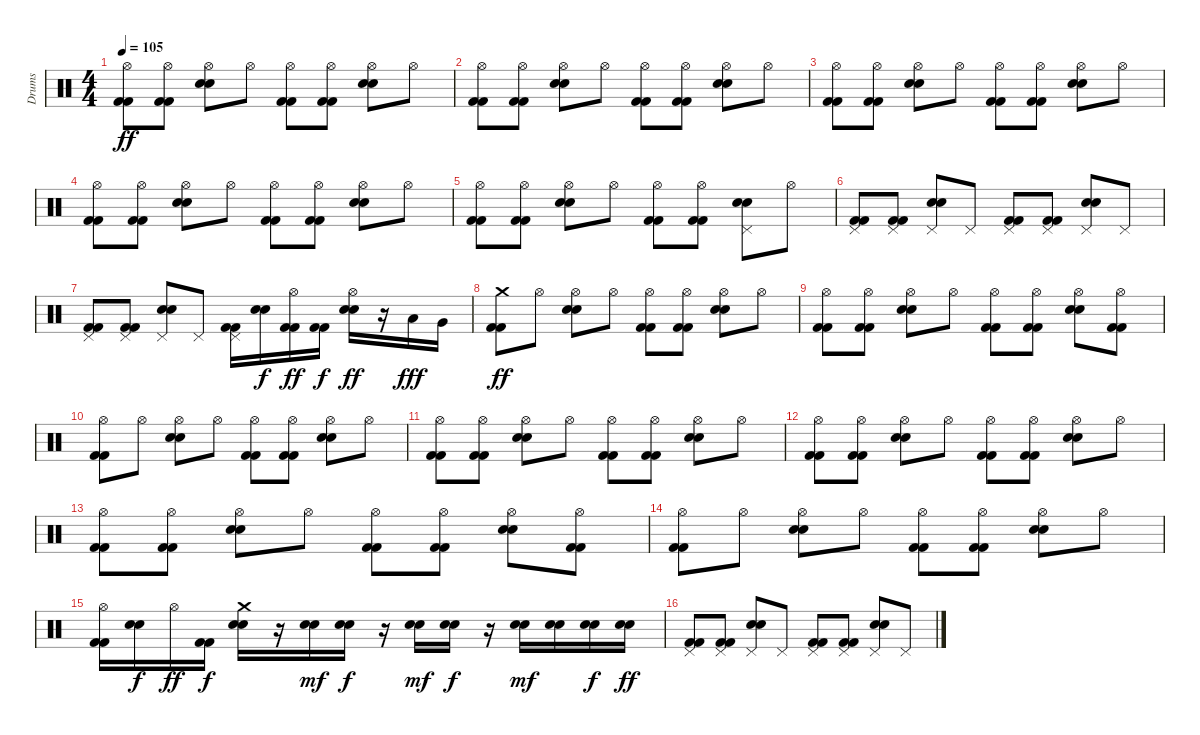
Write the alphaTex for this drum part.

\track ("Drums" "Drums") {instrument percussion}
\staff {score}
\articulation defaults
\ts (4 4)
\tempo 105
\clef neutral
\ks c
("Hi-Hat (open)" "Kick (hit) 2" "Kick (hit) 2").8{dy ff} ("Hi-Hat (open)" "Kick (hit) 2" "Kick (hit) 2").8 ("Hi-Hat (open)" "Electric Snare (hit)" "Snare (hit) 2").8 "Hi-Hat (open)".8 ("Hi-Hat (open)" "Kick (hit) 2" "Kick (hit) 2").8 ("Hi-Hat (open)" "Kick (hit) 2" "Kick (hit) 2").8 ("Hi-Hat (open)" "Electric Snare (hit)" "Snare (hit) 2").8 "Hi-Hat (open)".8 |
("Hi-Hat (open)" "Kick (hit) 2" "Kick (hit) 2").8 ("Hi-Hat (open)" "Kick (hit) 2" "Kick (hit) 2").8 ("Hi-Hat (open)" "Electric Snare (hit)" "Snare (hit) 2").8 "Hi-Hat (open)".8 ("Hi-Hat (open)" "Kick (hit) 2" "Kick (hit) 2").8 ("Hi-Hat (open)" "Kick (hit) 2" "Kick (hit) 2").8 ("Hi-Hat (open)" "Electric Snare (hit)" "Snare (hit) 2").8 "Hi-Hat (open)".8 |
("Hi-Hat (open)" "Kick (hit) 2" "Kick (hit) 2").8 ("Hi-Hat (open)" "Kick (hit) 2" "Kick (hit) 2").8 ("Hi-Hat (open)" "Electric Snare (hit)" "Snare (hit) 2").8 "Hi-Hat (open)".8 ("Hi-Hat (open)" "Kick (hit) 2" "Kick (hit) 2").8 ("Hi-Hat (open)" "Kick (hit) 2" "Kick (hit) 2").8 ("Hi-Hat (open)" "Electric Snare (hit)" "Snare (hit) 2").8 "Hi-Hat (open)".8 |
("Hi-Hat (open)" "Kick (hit) 2" "Kick (hit) 2").8 ("Hi-Hat (open)" "Kick (hit) 2" "Kick (hit) 2").8 ("Hi-Hat (open)" "Electric Snare (hit)" "Snare (hit) 2").8 "Hi-Hat (open)".8 ("Hi-Hat (open)" "Kick (hit) 2" "Kick (hit) 2").8 ("Hi-Hat (open)" "Kick (hit) 2" "Kick (hit) 2").8 ("Hi-Hat (open)" "Electric Snare (hit)" "Snare (hit) 2").8 "Hi-Hat (open)".8 |
("Hi-Hat (open)" "Kick (hit) 2" "Kick (hit) 2").8 ("Hi-Hat (open)" "Kick (hit) 2" "Kick (hit) 2").8 ("Hi-Hat (open)" "Electric Snare (hit)" "Snare (hit) 2").8 "Hi-Hat (open)".8 ("Hi-Hat (open)" "Kick (hit) 2" "Kick (hit) 2").8 ("Hi-Hat (open)" "Kick (hit) 2" "Kick (hit) 2").8 ("Pedal Hi-Hat (hit)" "Electric Snare (hit)" "Snare (hit) 2").8 "Hi-Hat (open)".8 |
("Pedal Hi-Hat (hit)" "Kick (hit) 2" "Kick (hit) 2").8 ("Pedal Hi-Hat (hit)" "Kick (hit) 2" "Kick (hit) 2").8 ("Pedal Hi-Hat (hit)" "Electric Snare (hit)" "Snare (hit) 2").8 "Pedal Hi-Hat (hit)".8 ("Pedal Hi-Hat (hit)" "Kick (hit) 2" "Kick (hit) 2").8 ("Pedal Hi-Hat (hit)" "Kick (hit) 2" "Kick (hit) 2").8 ("Pedal Hi-Hat (hit)" "Electric Snare (hit)" "Snare (hit) 2").8 "Pedal Hi-Hat (hit)".8 |
("Pedal Hi-Hat (hit)" "Kick (hit) 2" "Kick (hit) 2").8 ("Pedal Hi-Hat (hit)" "Kick (hit) 2" "Kick (hit) 2").8 ("Pedal Hi-Hat (hit)" "Electric Snare (hit)" "Snare (hit) 2").8 "Pedal Hi-Hat (hit)".8 ("Pedal Hi-Hat (hit)" "Kick (hit) 2" "Kick (hit) 2").16 ("Electric Snare (hit)" "Snare (hit) 2").16{dy f} ("Hi-Hat (open)" "Kick (hit) 2" "Kick (hit) 2").16{dy ff} ("Kick (hit) 2" "Kick (hit) 2").16{dy f} ("Hi-Hat (open)" "Electric Snare (hit)" "Snare (hit) 2").16{dy ff} r.16 "Low Tom (hit)".16{dy fff} "Very Low Tom (hit)".16 |
("Crash medium (hit)" "Kick (hit) 2" "Kick (hit) 2").8{dy ff} "Hi-Hat (open)".8 ("Hi-Hat (open)" "Electric Snare (hit)" "Snare (hit) 2").8 "Hi-Hat (open)".8 ("Hi-Hat (open)" "Kick (hit) 2" "Kick (hit) 2").8 ("Hi-Hat (open)" "Kick (hit) 2" "Kick (hit) 2").8 ("Hi-Hat (open)" "Electric Snare (hit)" "Snare (hit) 2").8 "Hi-Hat (open)".8 |
("Hi-Hat (open)" "Kick (hit) 2" "Kick (hit) 2").8 ("Hi-Hat (open)" "Kick (hit) 2" "Kick (hit) 2").8 ("Hi-Hat (open)" "Electric Snare (hit)" "Snare (hit) 2").8 "Hi-Hat (open)".8 ("Hi-Hat (open)" "Kick (hit) 2" "Kick (hit) 2").8 ("Hi-Hat (open)" "Kick (hit) 2" "Kick (hit) 2").8 ("Hi-Hat (open)" "Electric Snare (hit)" "Snare (hit) 2").8 ("Hi-Hat (open)" "Kick (hit) 2" "Kick (hit) 2").8 |
("Hi-Hat (open)" "Kick (hit) 2" "Kick (hit) 2").8 "Hi-Hat (open)".8 ("Hi-Hat (open)" "Electric Snare (hit)" "Snare (hit) 2").8 "Hi-Hat (open)".8 ("Hi-Hat (open)" "Kick (hit) 2" "Kick (hit) 2").8 ("Hi-Hat (open)" "Kick (hit) 2" "Kick (hit) 2").8 ("Hi-Hat (open)" "Electric Snare (hit)" "Snare (hit) 2").8 "Hi-Hat (open)".8 |
("Hi-Hat (open)" "Kick (hit) 2" "Kick (hit) 2").8 ("Hi-Hat (open)" "Kick (hit) 2" "Kick (hit) 2").8 ("Hi-Hat (open)" "Electric Snare (hit)" "Snare (hit) 2").8 "Hi-Hat (open)".8 ("Hi-Hat (open)" "Kick (hit) 2" "Kick (hit) 2").8 ("Hi-Hat (open)" "Kick (hit) 2" "Kick (hit) 2").8 ("Hi-Hat (open)" "Electric Snare (hit)" "Snare (hit) 2").8 "Hi-Hat (open)".8 |
("Hi-Hat (open)" "Kick (hit) 2" "Kick (hit) 2").8 ("Hi-Hat (open)" "Kick (hit) 2" "Kick (hit) 2").8 ("Hi-Hat (open)" "Electric Snare (hit)" "Snare (hit) 2").8 "Hi-Hat (open)".8 ("Hi-Hat (open)" "Kick (hit) 2" "Kick (hit) 2").8 ("Hi-Hat (open)" "Kick (hit) 2" "Kick (hit) 2").8 ("Hi-Hat (open)" "Electric Snare (hit)" "Snare (hit) 2").8 "Hi-Hat (open)".8 |
("Hi-Hat (open)" "Kick (hit) 2" "Kick (hit) 2").8 ("Hi-Hat (open)" "Kick (hit) 2" "Kick (hit) 2").8 ("Hi-Hat (open)" "Electric Snare (hit)" "Snare (hit) 2").8 "Hi-Hat (open)".8 ("Hi-Hat (open)" "Kick (hit) 2" "Kick (hit) 2").8 ("Hi-Hat (open)" "Kick (hit) 2" "Kick (hit) 2").8 ("Hi-Hat (open)" "Electric Snare (hit)" "Snare (hit) 2").8 ("Hi-Hat (open)" "Kick (hit) 2" "Kick (hit) 2").8 |
("Hi-Hat (open)" "Kick (hit) 2" "Kick (hit) 2").8 "Hi-Hat (open)".8 ("Hi-Hat (open)" "Electric Snare (hit)" "Snare (hit) 2").8 "Hi-Hat (open)".8 ("Hi-Hat (open)" "Kick (hit) 2" "Kick (hit) 2").8 ("Hi-Hat (open)" "Kick (hit) 2" "Kick (hit) 2").8 ("Hi-Hat (open)" "Electric Snare (hit)" "Snare (hit) 2").8 "Hi-Hat (open)".8 |
("Hi-Hat (open)" "Kick (hit) 2" "Kick (hit) 2").16 ("Electric Snare (hit)" "Snare (hit) 2").16{dy f} "Hi-Hat (open)".16{dy ff} ("Kick (hit) 2" "Kick (hit) 2").16{dy f} ("Crash medium (hit)" "Electric Snare (hit)" "Snare (hit) 2").16 r.16 ("Electric Snare (hit)" "Snare (hit) 2").16{dy mf} ("Electric Snare (hit)" "Snare (hit) 2").16{dy f} r.16 ("Electric Snare (hit)" "Snare (hit) 2").16{dy mf} ("Electric Snare (hit)" "Snare (hit) 2").16{dy f} r.16 ("Electric Snare (hit)" "Snare (hit) 2").16{dy mf} ("Electric Snare (hit)" "Snare (hit) 2").16 ("Electric Snare (hit)" "Snare (hit) 2").16{dy f} ("Electric Snare (hit)" "Snare (hit) 2").16{dy ff} |
("Pedal Hi-Hat (hit)" "Kick (hit) 2" "Kick (hit) 2").8 ("Pedal Hi-Hat (hit)" "Kick (hit) 2" "Kick (hit) 2").8 ("Pedal Hi-Hat (hit)" "Electric Snare (hit)" "Snare (hit) 2").8 "Pedal Hi-Hat (hit)".8 ("Pedal Hi-Hat (hit)" "Kick (hit) 2" "Kick (hit) 2").8 ("Pedal Hi-Hat (hit)" "Kick (hit) 2" "Kick (hit) 2").8 ("Pedal Hi-Hat (hit)" "Electric Snare (hit)" "Snare (hit) 2").8 "Pedal Hi-Hat (hit)".8
